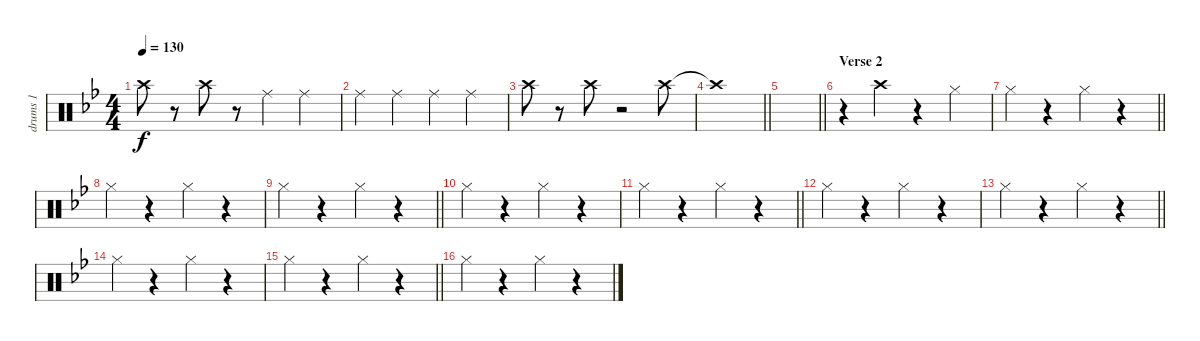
\track ("drums 1" "drums 1") {instrument percussion}
\staff {score}
\articulation defaults
\ts (4 4)
\tempo 130
\clef neutral
\ks bb "Crash high (hit)".8{dy f}
r.8 "Crash high (hit)".8 r.8 "Ride (middle)".4 "Ride (middle)".4 |
"Ride (middle)".4 "Ride (middle)".4 "Ride (middle)".4 "Ride (middle)".4 |
"Crash high (hit)".8 r.8 "Crash high (hit)".8 r.2 "Crash high (hit)".8 |
\barLineRight lightlight "Crash high (hit)"{t}.1
|
\barLineRight lightlight
|
\section ("" "Verse 2")
r.4 "Crash high (hit)".4 r.4 "Hi-Hat (closed)".4 |
\barLineRight lightlight "Hi-Hat (closed)".4
r.4 "Hi-Hat (closed)".4 r.4 |
"Hi-Hat (closed)".4 r.4 "Hi-Hat (closed)".4 r.4 |
\barLineRight lightlight "Hi-Hat (closed)".4
r.4 "Hi-Hat (closed)".4 r.4 |
"Hi-Hat (closed)".4 r.4 "Hi-Hat (closed)".4 r.4 |
\barLineRight lightlight "Hi-Hat (closed)".4
r.4 "Hi-Hat (closed)".4 r.4 |
"Hi-Hat (closed)".4 r.4 "Hi-Hat (closed)".4 r.4 |
\barLineRight lightlight "Hi-Hat (closed)".4
r.4 "Hi-Hat (closed)".4 r.4 |
"Hi-Hat (closed)".4 r.4 "Hi-Hat (closed)".4 r.4 |
\barLineRight lightlight "Hi-Hat (closed)".4
r.4 "Hi-Hat (closed)".4 r.4 |
"Hi-Hat (closed)".4 r.4 "Hi-Hat (closed)".4 r.4
